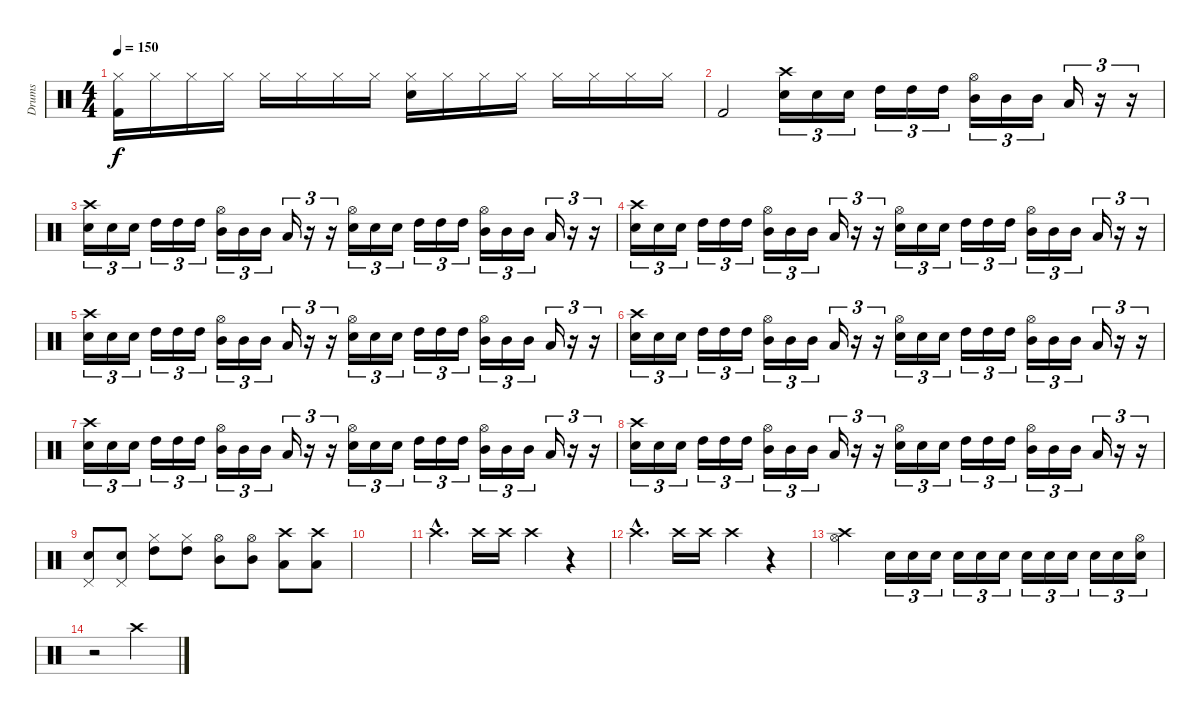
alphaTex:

\track ("Drums" "Drums") {instrument percussion}
\staff {score}
\articulation defaults
\ts (4 4)
\tempo 150
\clef neutral
\ks c
("Hi-Hat (closed)" "Kick (hit) 2").16{dy f} "Hi-Hat (closed)".16 "Hi-Hat (closed)".16 "Hi-Hat (closed)".16 "Hi-Hat (closed)".16 "Hi-Hat (closed)".16 "Hi-Hat (closed)".16 "Hi-Hat (closed)".16 ("Hi-Hat (closed)" "Snare (hit) 2").16 "Hi-Hat (closed)".16 "Hi-Hat (closed)".16 "Hi-Hat (closed)".16 "Hi-Hat (closed)".16 "Hi-Hat (closed)".16 "Hi-Hat (closed)".16 "Hi-Hat (closed)".16 |
"Kick (hit) 2".2 ("Crash high (hit)" "Snare (hit) 2").16{tu (3 2)} "Snare (hit) 2".16{tu (3 2)} "Snare (hit) 2".16{tu (3 2)} "High Tom (hit)".16{tu (3 2)} "High Tom (hit)".16{tu (3 2)} "High Tom (hit)".16{tu (3 2)} ("Hi-Hat (open)" "Mid Tom (hit)").16{tu (3 2)} "Mid Tom (hit)".16{tu (3 2)} "Mid Tom (hit)".16{tu (3 2)} "Low Tom (hit)".16{tu (3 2)} r.16{tu (3 2)} r.16{tu (3 2)} |
("Crash high (hit)" "Snare (hit) 2").16{tu (3 2)} "Snare (hit) 2".16{tu (3 2)} "Snare (hit) 2".16{tu (3 2)} "High Tom (hit)".16{tu (3 2)} "High Tom (hit)".16{tu (3 2)} "High Tom (hit)".16{tu (3 2)} ("Hi-Hat (open)" "Mid Tom (hit)").16{tu (3 2)} "Mid Tom (hit)".16{tu (3 2)} "Mid Tom (hit)".16{tu (3 2)} "Low Tom (hit)".16{tu (3 2)} r.16{tu (3 2)} r.16{tu (3 2)} ("Hi-Hat (open)" "Snare (hit) 2").16{tu (3 2)} "Snare (hit) 2".16{tu (3 2)} "Snare (hit) 2".16{tu (3 2)} "High Tom (hit)".16{tu (3 2)} "High Tom (hit)".16{tu (3 2)} "High Tom (hit)".16{tu (3 2)} ("Hi-Hat (open)" "Mid Tom (hit)").16{tu (3 2)} "Mid Tom (hit)".16{tu (3 2)} "Mid Tom (hit)".16{tu (3 2)} "Low Tom (hit)".16{tu (3 2)} r.16{tu (3 2)} r.16{tu (3 2)} |
("Crash high (hit)" "Snare (hit) 2").16{tu (3 2)} "Snare (hit) 2".16{tu (3 2)} "Snare (hit) 2".16{tu (3 2)} "High Tom (hit)".16{tu (3 2)} "High Tom (hit)".16{tu (3 2)} "High Tom (hit)".16{tu (3 2)} ("Hi-Hat (open)" "Mid Tom (hit)").16{tu (3 2)} "Mid Tom (hit)".16{tu (3 2)} "Mid Tom (hit)".16{tu (3 2)} "Low Tom (hit)".16{tu (3 2)} r.16{tu (3 2)} r.16{tu (3 2)} ("Hi-Hat (open)" "Snare (hit) 2").16{tu (3 2)} "Snare (hit) 2".16{tu (3 2)} "Snare (hit) 2".16{tu (3 2)} "High Tom (hit)".16{tu (3 2)} "High Tom (hit)".16{tu (3 2)} "High Tom (hit)".16{tu (3 2)} ("Hi-Hat (open)" "Mid Tom (hit)").16{tu (3 2)} "Mid Tom (hit)".16{tu (3 2)} "Mid Tom (hit)".16{tu (3 2)} "Low Tom (hit)".16{tu (3 2)} r.16{tu (3 2)} r.16{tu (3 2)} |
("Crash high (hit)" "Snare (hit) 2").16{tu (3 2)} "Snare (hit) 2".16{tu (3 2)} "Snare (hit) 2".16{tu (3 2)} "High Tom (hit)".16{tu (3 2)} "High Tom (hit)".16{tu (3 2)} "High Tom (hit)".16{tu (3 2)} ("Hi-Hat (open)" "Mid Tom (hit)").16{tu (3 2)} "Mid Tom (hit)".16{tu (3 2)} "Mid Tom (hit)".16{tu (3 2)} "Low Tom (hit)".16{tu (3 2)} r.16{tu (3 2)} r.16{tu (3 2)} ("Hi-Hat (open)" "Snare (hit) 2").16{tu (3 2)} "Snare (hit) 2".16{tu (3 2)} "Snare (hit) 2".16{tu (3 2)} "High Tom (hit)".16{tu (3 2)} "High Tom (hit)".16{tu (3 2)} "High Tom (hit)".16{tu (3 2)} ("Hi-Hat (open)" "Mid Tom (hit)").16{tu (3 2)} "Mid Tom (hit)".16{tu (3 2)} "Mid Tom (hit)".16{tu (3 2)} "Low Tom (hit)".16{tu (3 2)} r.16{tu (3 2)} r.16{tu (3 2)} |
("Crash high (hit)" "Snare (hit) 2").16{tu (3 2)} "Snare (hit) 2".16{tu (3 2)} "Snare (hit) 2".16{tu (3 2)} "High Tom (hit)".16{tu (3 2)} "High Tom (hit)".16{tu (3 2)} "High Tom (hit)".16{tu (3 2)} ("Hi-Hat (open)" "Mid Tom (hit)").16{tu (3 2)} "Mid Tom (hit)".16{tu (3 2)} "Mid Tom (hit)".16{tu (3 2)} "Low Tom (hit)".16{tu (3 2)} r.16{tu (3 2)} r.16{tu (3 2)} ("Hi-Hat (open)" "Snare (hit) 2").16{tu (3 2)} "Snare (hit) 2".16{tu (3 2)} "Snare (hit) 2".16{tu (3 2)} "High Tom (hit)".16{tu (3 2)} "High Tom (hit)".16{tu (3 2)} "High Tom (hit)".16{tu (3 2)} ("Hi-Hat (open)" "Mid Tom (hit)").16{tu (3 2)} "Mid Tom (hit)".16{tu (3 2)} "Mid Tom (hit)".16{tu (3 2)} "Low Tom (hit)".16{tu (3 2)} r.16{tu (3 2)} r.16{tu (3 2)} |
("Crash high (hit)" "Snare (hit) 2").16{tu (3 2)} "Snare (hit) 2".16{tu (3 2)} "Snare (hit) 2".16{tu (3 2)} "High Tom (hit)".16{tu (3 2)} "High Tom (hit)".16{tu (3 2)} "High Tom (hit)".16{tu (3 2)} ("Hi-Hat (open)" "Mid Tom (hit)").16{tu (3 2)} "Mid Tom (hit)".16{tu (3 2)} "Mid Tom (hit)".16{tu (3 2)} "Low Tom (hit)".16{tu (3 2)} r.16{tu (3 2)} r.16{tu (3 2)} ("Hi-Hat (open)" "Snare (hit) 2").16{tu (3 2)} "Snare (hit) 2".16{tu (3 2)} "Snare (hit) 2".16{tu (3 2)} "High Tom (hit)".16{tu (3 2)} "High Tom (hit)".16{tu (3 2)} "High Tom (hit)".16{tu (3 2)} ("Hi-Hat (open)" "Mid Tom (hit)").16{tu (3 2)} "Mid Tom (hit)".16{tu (3 2)} "Mid Tom (hit)".16{tu (3 2)} "Low Tom (hit)".16{tu (3 2)} r.16{tu (3 2)} r.16{tu (3 2)} |
("Crash high (hit)" "Snare (hit) 2").16{tu (3 2)} "Snare (hit) 2".16{tu (3 2)} "Snare (hit) 2".16{tu (3 2)} "High Tom (hit)".16{tu (3 2)} "High Tom (hit)".16{tu (3 2)} "High Tom (hit)".16{tu (3 2)} ("Hi-Hat (open)" "Mid Tom (hit)").16{tu (3 2)} "Mid Tom (hit)".16{tu (3 2)} "Mid Tom (hit)".16{tu (3 2)} "Low Tom (hit)".16{tu (3 2)} r.16{tu (3 2)} r.16{tu (3 2)} ("Hi-Hat (open)" "Snare (hit) 2").16{tu (3 2)} "Snare (hit) 2".16{tu (3 2)} "Snare (hit) 2".16{tu (3 2)} "High Tom (hit)".16{tu (3 2)} "High Tom (hit)".16{tu (3 2)} "High Tom (hit)".16{tu (3 2)} ("Hi-Hat (open)" "Mid Tom (hit)").16{tu (3 2)} "Mid Tom (hit)".16{tu (3 2)} "Mid Tom (hit)".16{tu (3 2)} "Low Tom (hit)".16{tu (3 2)} r.16{tu (3 2)} r.16{tu (3 2)} |
("Snare (hit) 2" "Pedal Hi-Hat (hit)").8 ("Snare (hit) 2" "Pedal Hi-Hat (hit)").8 ("High Tom (hit)" "Hi-Hat (closed)").8 ("High Tom (hit)" "Hi-Hat (closed)").8 ("Hi-Hat (open)" "Mid Tom (hit)").8 ("Hi-Hat (open)" "Mid Tom (hit)").8 ("Crash high (hit)" "Low Tom (hit)").8 ("Crash high (hit)" "Low Tom (hit)").8 |
|
"Crash high (hit)"{hac}.4{d} "Crash high (hit)".16 "Crash high (hit)".16 "Crash high (hit)".4 r.4 |
"Crash high (hit)"{hac}.4{d} "Crash high (hit)".16 "Crash high (hit)".16 "Crash high (hit)".4 r.4 |
("Crash high (hit)" "Hi-Hat (open)").2 "Snare (hit) 2".16{tu (3 2)} "Snare (hit) 2".16{tu (3 2)} "Snare (hit) 2".16{tu (3 2)} "Snare (hit) 2".16{tu (3 2)} "Snare (hit) 2".16{tu (3 2)} "Snare (hit) 2".16{tu (3 2)} "Snare (hit) 2".16{tu (3 2)} "Snare (hit) 2".16{tu (3 2)} "Snare (hit) 2".16{tu (3 2)} "Snare (hit) 2".16{tu (3 2)} "Snare (hit) 2".16{tu (3 2)} ("Hi-Hat (open)" "Snare (hit) 2").16{tu (3 2)} |
r.2 "Crash high (hit)".2
